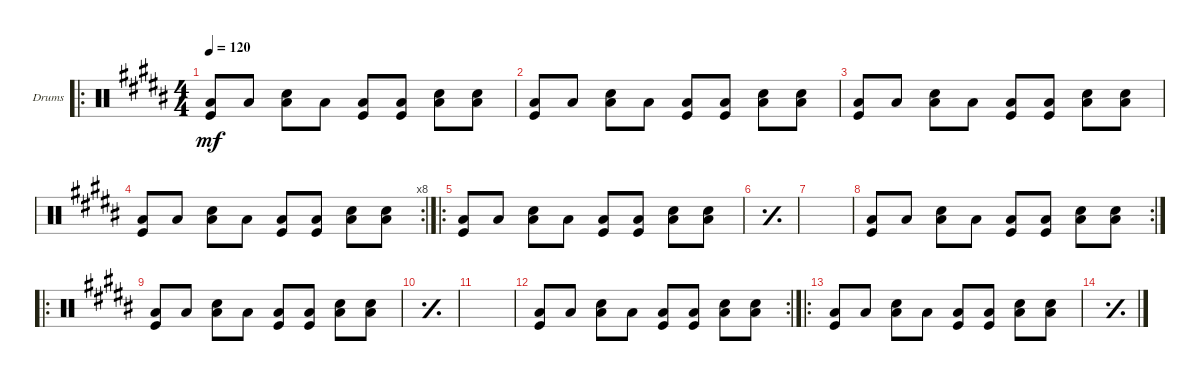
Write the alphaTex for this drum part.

\defaultSystemsLayout 4
\bracketExtendMode groupsimilarinstruments
\firstSystemTrackNameOrientation horizontal
\otherSystemsTrackNameOrientation horizontal
\track ("Drumkit" "Drums") {instrument percussion}
\staff {score}
\articulation defaults
\ro
\ts (4 4)
\tempo 120
\clef neutral
\scale
0.569811
\ks b
("Low Tom (hit)" "Kick (hit)").8{dy mf} "Low Tom (hit)".8 ("Low Tom (hit)" "Snare (hit) 2").8 "Low Tom (hit)".8 ("Low Tom (hit)" "Kick (hit)").8 ("Low Tom (hit)" "Kick (hit)").8 ("Low Tom (hit)" "Snare (hit) 2").8 ("Low Tom (hit)" "Snare (hit) 2").8 |
\scale
0.215094 ("Low Tom (hit)" "Kick (hit)").8 "Low Tom (hit)".8 ("Low Tom (hit)" "Snare (hit) 2").8 "Low Tom (hit)".8 ("Low Tom (hit)" "Kick (hit)").8 ("Low Tom (hit)" "Kick (hit)").8 ("Low Tom (hit)" "Snare (hit) 2").8 ("Low Tom (hit)" "Snare (hit) 2").8 |
\scale
0.215094 ("Low Tom (hit)" "Kick (hit)").8 "Low Tom (hit)".8 ("Low Tom (hit)" "Snare (hit) 2").8 "Low Tom (hit)".8 ("Low Tom (hit)" "Kick (hit)").8 ("Low Tom (hit)" "Kick (hit)").8 ("Low Tom (hit)" "Snare (hit) 2").8 ("Low Tom (hit)" "Snare (hit) 2").8 |
\rc 8
\scale
0.333333 ("Low Tom (hit)" "Kick (hit)").8 "Low Tom (hit)".8 ("Low Tom (hit)" "Snare (hit) 2").8 "Low Tom (hit)".8 ("Low Tom (hit)" "Kick (hit)").8 ("Low Tom (hit)" "Kick (hit)").8 ("Low Tom (hit)" "Snare (hit) 2").8 ("Low Tom (hit)" "Snare (hit) 2").8 |
\ro
\scale
0.365079 ("Low Tom (hit)" "Kick (hit)").8 "Low Tom (hit)".8 ("Low Tom (hit)" "Snare (hit) 2").8 "Low Tom (hit)".8 ("Low Tom (hit)" "Kick (hit)").8 ("Low Tom (hit)" "Kick (hit)").8 ("Low Tom (hit)" "Snare (hit) 2").8 ("Low Tom (hit)" "Snare (hit) 2").8 |
\simile simple
\scale
0.301587 |
\scale
0.301587 |
\rc 2
\simile none
\scale
0.333333 ("Low Tom (hit)" "Kick (hit)").8 "Low Tom (hit)".8 ("Low Tom (hit)" "Snare (hit) 2").8 "Low Tom (hit)".8 ("Low Tom (hit)" "Kick (hit)").8 ("Low Tom (hit)" "Kick (hit)").8 ("Low Tom (hit)" "Snare (hit) 2").8 ("Low Tom (hit)" "Snare (hit) 2").8 |
\ro
\scale
0.365079 ("Low Tom (hit)" "Kick (hit)").8 "Low Tom (hit)".8 ("Low Tom (hit)" "Snare (hit) 2").8 "Low Tom (hit)".8 ("Low Tom (hit)" "Kick (hit)").8 ("Low Tom (hit)" "Kick (hit)").8 ("Low Tom (hit)" "Snare (hit) 2").8 ("Low Tom (hit)" "Snare (hit) 2").8 |
\simile simple
\scale
0.322034 |
\scale
0.322034 |
\rc 2
\simile none
\scale
0.355932 ("Low Tom (hit)" "Kick (hit)").8 "Low Tom (hit)".8 ("Low Tom (hit)" "Snare (hit) 2").8 "Low Tom (hit)".8 ("Low Tom (hit)" "Kick (hit)").8 ("Low Tom (hit)" "Kick (hit)").8 ("Low Tom (hit)" "Snare (hit) 2").8 ("Low Tom (hit)" "Snare (hit) 2").8 |
\ro
\scale
0.377049 ("Low Tom (hit)" "Kick (hit)").8 "Low Tom (hit)".8 ("Low Tom (hit)" "Snare (hit) 2").8 "Low Tom (hit)".8 ("Low Tom (hit)" "Kick (hit)").8 ("Low Tom (hit)" "Kick (hit)").8 ("Low Tom (hit)" "Snare (hit) 2").8 ("Low Tom (hit)" "Snare (hit) 2").8 |
\simile simple
\scale
0.311475 |
\scale
0.311475 |
\scale
0.333333
